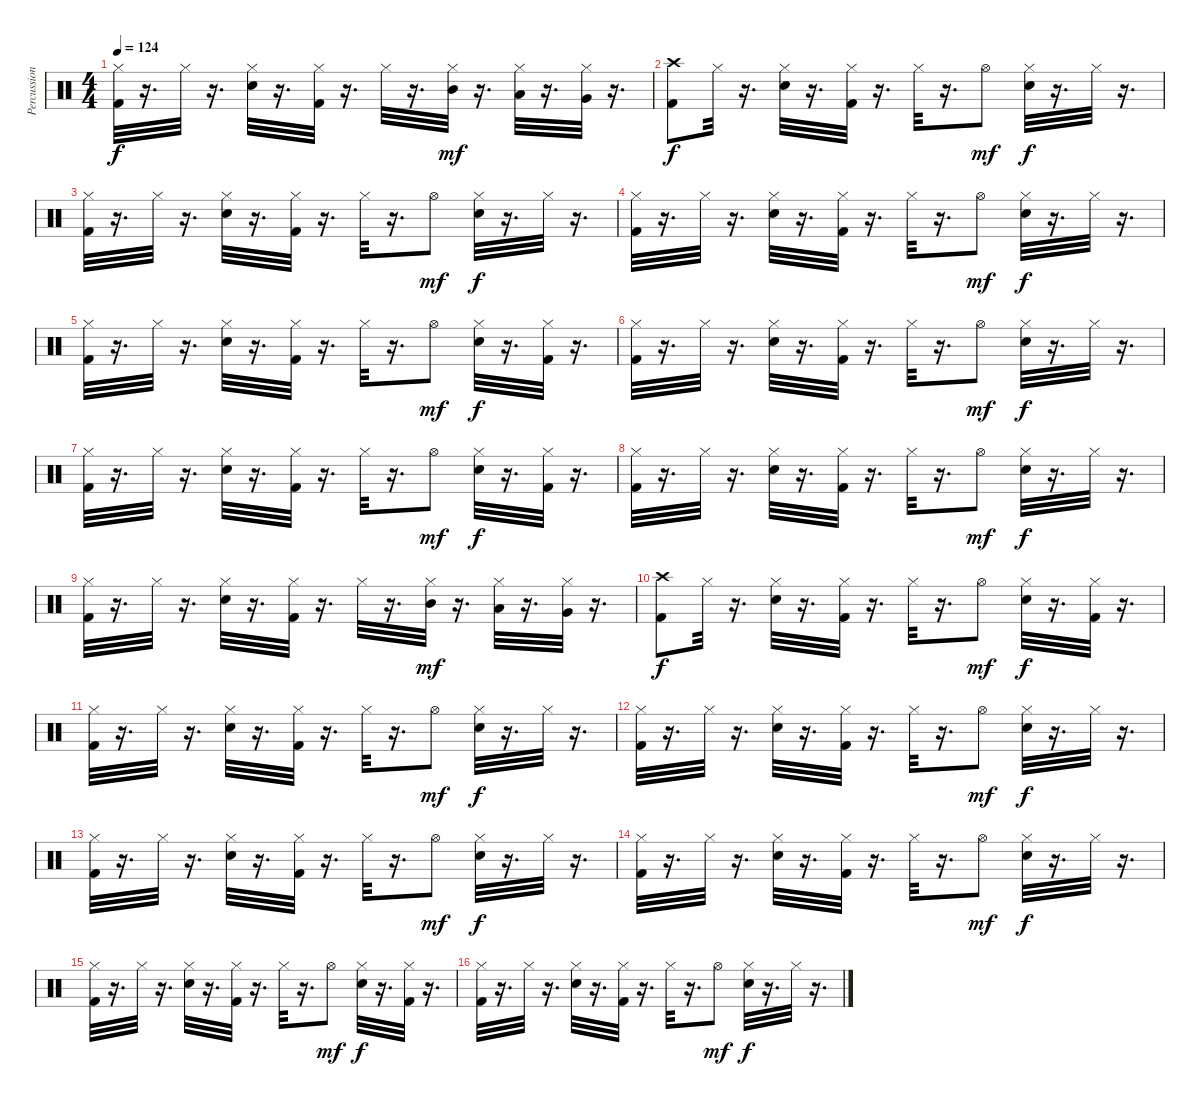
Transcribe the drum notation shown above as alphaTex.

\track ("Percussions" "Percussion") {instrument percussion}
\staff {score}
\articulation defaults
\ts (4 4)
\tempo 124
\clef neutral
\ks c
("Kick (hit) 2" "Hi-Hat (closed)").32{dy f} r.16{d} "Hi-Hat (closed)".32 r.16{d} ("Snare (hit) 2" "Hi-Hat (closed)").32 r.16{d} ("Kick (hit) 2" "Hi-Hat (closed)").32 r.16{d} "Hi-Hat (closed)".32 r.16{d} ("Hi-Hat (closed)" "Mid Tom (hit)").32{dy mf} r.16{d} ("Hi-Hat (closed)" "Low Tom (hit)").32 r.16{d} ("Hi-Hat (closed)" "Very Low Tom (hit)").32 r.16{d} |
("Kick (hit) 2" "Crash high (hit)").8{dy f} "Hi-Hat (closed)".32 r.16{d} ("Snare (hit) 2" "Hi-Hat (closed)").32 r.16{d} ("Kick (hit) 2" "Hi-Hat (closed)").32 r.16{d} "Hi-Hat (closed)".32 r.16{d} "Hi-Hat (open)".8{dy mf} ("Snare (hit) 2" "Hi-Hat (closed)").32{dy f} r.16{d} "Hi-Hat (closed)".32 r.16{d} |
("Kick (hit) 2" "Hi-Hat (closed)").32 r.16{d} "Hi-Hat (closed)".32 r.16{d} ("Snare (hit) 2" "Hi-Hat (closed)").32 r.16{d} ("Kick (hit) 2" "Hi-Hat (closed)").32 r.16{d} "Hi-Hat (closed)".32 r.16{d} "Hi-Hat (open)".8{dy mf} ("Snare (hit) 2" "Hi-Hat (closed)").32{dy f} r.16{d} "Hi-Hat (closed)".32 r.16{d} |
("Kick (hit) 2" "Hi-Hat (closed)").32 r.16{d} "Hi-Hat (closed)".32 r.16{d} ("Snare (hit) 2" "Hi-Hat (closed)").32 r.16{d} ("Kick (hit) 2" "Hi-Hat (closed)").32 r.16{d} "Hi-Hat (closed)".32 r.16{d} "Hi-Hat (open)".8{dy mf} ("Snare (hit) 2" "Hi-Hat (closed)").32{dy f} r.16{d} "Hi-Hat (closed)".32 r.16{d} |
("Kick (hit) 2" "Hi-Hat (closed)").32 r.16{d} "Hi-Hat (closed)".32 r.16{d} ("Snare (hit) 2" "Hi-Hat (closed)").32 r.16{d} ("Kick (hit) 2" "Hi-Hat (closed)").32 r.16{d} "Hi-Hat (closed)".32 r.16{d} "Hi-Hat (open)".8{dy mf} ("Snare (hit) 2" "Hi-Hat (closed)").32{dy f} r.16{d} ("Kick (hit) 2" "Hi-Hat (closed)").32 r.16{d} |
("Kick (hit) 2" "Hi-Hat (closed)").32 r.16{d} "Hi-Hat (closed)".32 r.16{d} ("Snare (hit) 2" "Hi-Hat (closed)").32 r.16{d} ("Kick (hit) 2" "Hi-Hat (closed)").32 r.16{d} "Hi-Hat (closed)".32 r.16{d} "Hi-Hat (open)".8{dy mf} ("Snare (hit) 2" "Hi-Hat (closed)").32{dy f} r.16{d} "Hi-Hat (closed)".32 r.16{d} |
("Kick (hit) 2" "Hi-Hat (closed)").32 r.16{d} "Hi-Hat (closed)".32 r.16{d} ("Snare (hit) 2" "Hi-Hat (closed)").32 r.16{d} ("Kick (hit) 2" "Hi-Hat (closed)").32 r.16{d} "Hi-Hat (closed)".32 r.16{d} "Hi-Hat (open)".8{dy mf} ("Snare (hit) 2" "Hi-Hat (closed)").32{dy f} r.16{d} ("Kick (hit) 2" "Hi-Hat (closed)").32 r.16{d} |
("Kick (hit) 2" "Hi-Hat (closed)").32 r.16{d} "Hi-Hat (closed)".32 r.16{d} ("Snare (hit) 2" "Hi-Hat (closed)").32 r.16{d} ("Kick (hit) 2" "Hi-Hat (closed)").32 r.16{d} "Hi-Hat (closed)".32 r.16{d} "Hi-Hat (open)".8{dy mf} ("Snare (hit) 2" "Hi-Hat (closed)").32{dy f} r.16{d} "Hi-Hat (closed)".32 r.16{d} |
("Kick (hit) 2" "Hi-Hat (closed)").32 r.16{d} "Hi-Hat (closed)".32 r.16{d} ("Snare (hit) 2" "Hi-Hat (closed)").32 r.16{d} ("Kick (hit) 2" "Hi-Hat (closed)").32 r.16{d} "Hi-Hat (closed)".32 r.16{d} ("Hi-Hat (closed)" "Mid Tom (hit)").32{dy mf} r.16{d} ("Hi-Hat (closed)" "Low Tom (hit)").32 r.16{d} ("Hi-Hat (closed)" "Very Low Tom (hit)").32 r.16{d} |
("Kick (hit) 2" "Crash high (hit)").8{dy f} "Hi-Hat (closed)".32 r.16{d} ("Snare (hit) 2" "Hi-Hat (closed)").32 r.16{d} ("Kick (hit) 2" "Hi-Hat (closed)").32 r.16{d} "Hi-Hat (closed)".32 r.16{d} "Hi-Hat (open)".8{dy mf} ("Snare (hit) 2" "Hi-Hat (closed)").32{dy f} r.16{d} ("Kick (hit) 2" "Hi-Hat (closed)").32 r.16{d} |
("Kick (hit) 2" "Hi-Hat (closed)").32 r.16{d} "Hi-Hat (closed)".32 r.16{d} ("Snare (hit) 2" "Hi-Hat (closed)").32 r.16{d} ("Kick (hit) 2" "Hi-Hat (closed)").32 r.16{d} "Hi-Hat (closed)".32 r.16{d} "Hi-Hat (open)".8{dy mf} ("Snare (hit) 2" "Hi-Hat (closed)").32{dy f} r.16{d} "Hi-Hat (closed)".32 r.16{d} |
("Kick (hit) 2" "Hi-Hat (closed)").32 r.16{d} "Hi-Hat (closed)".32 r.16{d} ("Snare (hit) 2" "Hi-Hat (closed)").32 r.16{d} ("Kick (hit) 2" "Hi-Hat (closed)").32 r.16{d} "Hi-Hat (closed)".32 r.16{d} "Hi-Hat (open)".8{dy mf} ("Snare (hit) 2" "Hi-Hat (closed)").32{dy f} r.16{d} "Hi-Hat (closed)".32 r.16{d} |
("Kick (hit) 2" "Hi-Hat (closed)").32 r.16{d} "Hi-Hat (closed)".32 r.16{d} ("Snare (hit) 2" "Hi-Hat (closed)").32 r.16{d} ("Kick (hit) 2" "Hi-Hat (closed)").32 r.16{d} "Hi-Hat (closed)".32 r.16{d} "Hi-Hat (open)".8{dy mf} ("Snare (hit) 2" "Hi-Hat (closed)").32{dy f} r.16{d} "Hi-Hat (closed)".32 r.16{d} |
("Kick (hit) 2" "Hi-Hat (closed)").32 r.16{d} "Hi-Hat (closed)".32 r.16{d} ("Snare (hit) 2" "Hi-Hat (closed)").32 r.16{d} ("Kick (hit) 2" "Hi-Hat (closed)").32 r.16{d} "Hi-Hat (closed)".32 r.16{d} "Hi-Hat (open)".8{dy mf} ("Snare (hit) 2" "Hi-Hat (closed)").32{dy f} r.16{d} "Hi-Hat (closed)".32 r.16{d} |
("Kick (hit) 2" "Hi-Hat (closed)").32 r.16{d} "Hi-Hat (closed)".32 r.16{d} ("Snare (hit) 2" "Hi-Hat (closed)").32 r.16{d} ("Kick (hit) 2" "Hi-Hat (closed)").32 r.16{d} "Hi-Hat (closed)".32 r.16{d} "Hi-Hat (open)".8{dy mf} ("Snare (hit) 2" "Hi-Hat (closed)").32{dy f} r.16{d} ("Kick (hit) 2" "Hi-Hat (closed)").32 r.16{d} |
("Kick (hit) 2" "Hi-Hat (closed)").32 r.16{d} "Hi-Hat (closed)".32 r.16{d} ("Snare (hit) 2" "Hi-Hat (closed)").32 r.16{d} ("Kick (hit) 2" "Hi-Hat (closed)").32 r.16{d} "Hi-Hat (closed)".32 r.16{d} "Hi-Hat (open)".8{dy mf} ("Snare (hit) 2" "Hi-Hat (closed)").32{dy f} r.16{d} "Hi-Hat (closed)".32 r.16{d}
